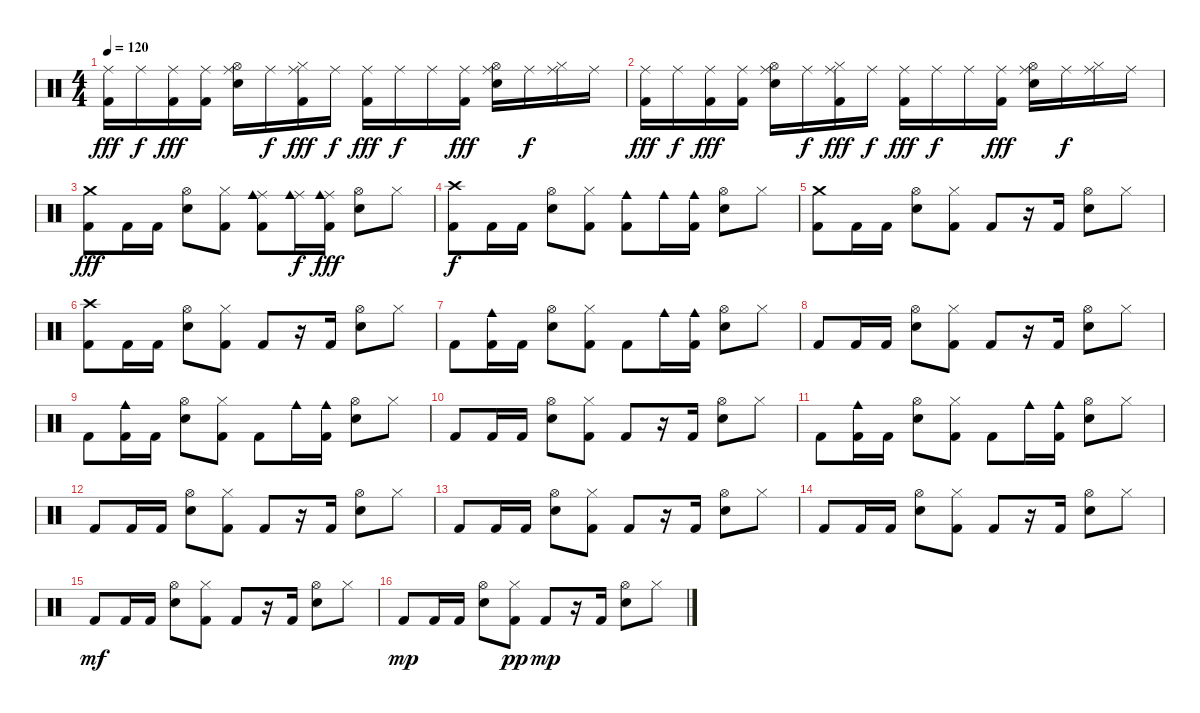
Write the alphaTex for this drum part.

\track "" {instrument percussion}
\staff {score}
\articulation defaults
\ts (4 4)
\tempo 120
\clef neutral
\ks c
("Kick (hit) 2" "Ride (middle)").16{dy fff} "Ride (middle)".16{dy f} ("Kick (hit) 2" "Ride (middle)").16{dy fff} ("Kick (hit) 2" "Ride (middle)").16 ("Electric Snare (hit)" "Hi-Hat (open)" "Ride (middle)").16 "Ride (middle)".16{dy f} ("Kick (hit) 2" "Hi-Hat (closed)" "Ride (middle)").16{dy fff} "Ride (middle)".16{dy f} ("Kick (hit) 2" "Ride (middle)").16{dy fff} "Ride (middle)".16{dy f} "Ride (middle)".16 ("Kick (hit) 2" "Ride (middle)").16{dy fff} ("Electric Snare (hit)" "Hi-Hat (open)" "Ride (middle)").16 "Ride (middle)".16{dy f} ("Hi-Hat (closed)" "Ride (middle)").16 "Ride (middle)".16 |
("Kick (hit) 2" "Ride (middle)").16{dy fff} "Ride (middle)".16{dy f} ("Kick (hit) 2" "Ride (middle)").16{dy fff} ("Kick (hit) 2" "Ride (middle)").16 ("Electric Snare (hit)" "Hi-Hat (open)" "Ride (middle)").16 "Ride (middle)".16{dy f} ("Kick (hit) 2" "Hi-Hat (closed)" "Ride (middle)").16{dy fff} "Ride (middle)".16{dy f} ("Kick (hit) 2" "Ride (middle)").16{dy fff} "Ride (middle)".16{dy f} "Ride (middle)".16 ("Kick (hit) 2" "Ride (middle)").16{dy fff} ("Electric Snare (hit)" "Hi-Hat (open)" "Ride (middle)").16 "Ride (middle)".16{dy f} ("Hi-Hat (closed)" "Ride (middle)").16 "Ride (middle)".16 |
("Kick (hit) 2" "Crash medium (hit)").8{dy fff} "Kick (hit) 2".16 "Kick (hit) 2".16 ("Electric Snare (hit)" "Hi-Hat (open)").8 ("Kick (hit) 2" "Hi-Hat (closed)").8 ("Kick (hit) 2" "Ride (middle)" "Cowbell medium (hit)").8 ("Ride (middle)" "Cowbell medium (hit)").16{dy f} ("Kick (hit) 2" "Ride (middle)" "Cowbell medium (hit)").16{dy fff} ("Electric Snare (hit)" "Hi-Hat (open)").8 "Hi-Hat (closed)".8 |
("Kick (hit) 2" "Crash high (hit)").8{dy f} "Kick (hit) 2".16 "Kick (hit) 2".16 ("Electric Snare (hit)" "Hi-Hat (open)").8 ("Kick (hit) 2" "Hi-Hat (closed)").8 ("Kick (hit) 2" "Cowbell medium (hit)").8 "Cowbell medium (hit)".16 ("Kick (hit) 2" "Cowbell medium (hit)").16 ("Electric Snare (hit)" "Hi-Hat (open)").8 "Hi-Hat (closed)".8 |
("Kick (hit) 2" "Crash medium (hit)").8 "Kick (hit) 2".16 "Kick (hit) 2".16 ("Electric Snare (hit)" "Hi-Hat (open)").8 ("Kick (hit) 2" "Hi-Hat (closed)").8 "Kick (hit) 2".8 r.16 "Kick (hit) 2".16 ("Electric Snare (hit)" "Hi-Hat (open)").8 "Hi-Hat (closed)".8 |
("Kick (hit) 2" "Crash high (hit)").8 "Kick (hit) 2".16 "Kick (hit) 2".16 ("Electric Snare (hit)" "Hi-Hat (open)").8 ("Kick (hit) 2" "Hi-Hat (closed)").8 "Kick (hit) 2".8 r.16 "Kick (hit) 2".16 ("Electric Snare (hit)" "Hi-Hat (open)").8 "Hi-Hat (closed)".8 |
"Kick (hit) 2".8 ("Kick (hit) 2" "Cowbell medium (hit)").16 "Kick (hit) 2".16 ("Electric Snare (hit)" "Hi-Hat (open)").8 ("Kick (hit) 2" "Hi-Hat (closed)").8 "Kick (hit) 2".8 "Cowbell medium (hit)".16 ("Kick (hit) 2" "Cowbell medium (hit)").16 ("Electric Snare (hit)" "Hi-Hat (open)").8 "Hi-Hat (closed)".8 |
"Kick (hit) 2".8 "Kick (hit) 2".16 "Kick (hit) 2".16 ("Electric Snare (hit)" "Hi-Hat (open)").8 ("Kick (hit) 2" "Hi-Hat (closed)").8 "Kick (hit) 2".8 r.16 "Kick (hit) 2".16 ("Electric Snare (hit)" "Hi-Hat (open)").8 "Hi-Hat (closed)".8 |
"Kick (hit) 2".8 ("Kick (hit) 2" "Cowbell medium (hit)").16 "Kick (hit) 2".16 ("Electric Snare (hit)" "Hi-Hat (open)").8 ("Kick (hit) 2" "Hi-Hat (closed)").8 "Kick (hit) 2".8 "Cowbell medium (hit)".16 ("Kick (hit) 2" "Cowbell medium (hit)").16 ("Electric Snare (hit)" "Hi-Hat (open)").8 "Hi-Hat (closed)".8 |
"Kick (hit) 2".8 "Kick (hit) 2".16 "Kick (hit) 2".16 ("Electric Snare (hit)" "Hi-Hat (open)").8 ("Kick (hit) 2" "Hi-Hat (closed)").8 "Kick (hit) 2".8 r.16 "Kick (hit) 2".16 ("Electric Snare (hit)" "Hi-Hat (open)").8 "Hi-Hat (closed)".8 |
"Kick (hit) 2".8 ("Kick (hit) 2" "Cowbell medium (hit)").16 "Kick (hit) 2".16 ("Electric Snare (hit)" "Hi-Hat (open)").8 ("Kick (hit) 2" "Hi-Hat (closed)").8 "Kick (hit) 2".8 "Cowbell medium (hit)".16 ("Kick (hit) 2" "Cowbell medium (hit)").16 ("Electric Snare (hit)" "Hi-Hat (open)").8 "Hi-Hat (closed)".8 |
"Kick (hit) 2".8{volume 13} "Kick (hit) 2".16 "Kick (hit) 2".16 ("Electric Snare (hit)" "Hi-Hat (open)").8 ("Kick (hit) 2" "Hi-Hat (closed)").8 "Kick (hit) 2".8 r.16 "Kick (hit) 2".16 ("Electric Snare (hit)" "Hi-Hat (open)").8 "Hi-Hat (closed)".8 |
"Kick (hit) 2".8{volume 11} "Kick (hit) 2".16 "Kick (hit) 2".16 ("Electric Snare (hit)" "Hi-Hat (open)").8 ("Kick (hit) 2" "Hi-Hat (closed)").8 "Kick (hit) 2".8 r.16 "Kick (hit) 2".16 ("Electric Snare (hit)" "Hi-Hat (open)").8 "Hi-Hat (closed)".8 |
"Kick (hit) 2".8{volume 10} "Kick (hit) 2".16 "Kick (hit) 2".16 ("Electric Snare (hit)" "Hi-Hat (open)").8 ("Kick (hit) 2" "Hi-Hat (closed)").8 "Kick (hit) 2".8 r.16 "Kick (hit) 2".16 ("Electric Snare (hit)" "Hi-Hat (open)").8 "Hi-Hat (closed)".8 |
"Kick (hit) 2".8{dy mf volume 9} "Kick (hit) 2".16 "Kick (hit) 2".16 ("Electric Snare (hit)" "Hi-Hat (open)").8 ("Kick (hit) 2" "Hi-Hat (closed)").8 "Kick (hit) 2".8 r.16 "Kick (hit) 2".16 ("Electric Snare (hit)" "Hi-Hat (open)").8 "Hi-Hat (closed)".8 |
"Kick (hit) 2".8{dy mp volume 8} "Kick (hit) 2".16 "Kick (hit) 2".16 ("Electric Snare (hit)" "Hi-Hat (open)").8 ("Kick (hit) 2" "Hi-Hat (closed)").8{dy pp} "Kick (hit) 2".8{dy mp} r.16 "Kick (hit) 2".16 ("Electric Snare (hit)" "Hi-Hat (open)").8 "Hi-Hat (closed)".8
